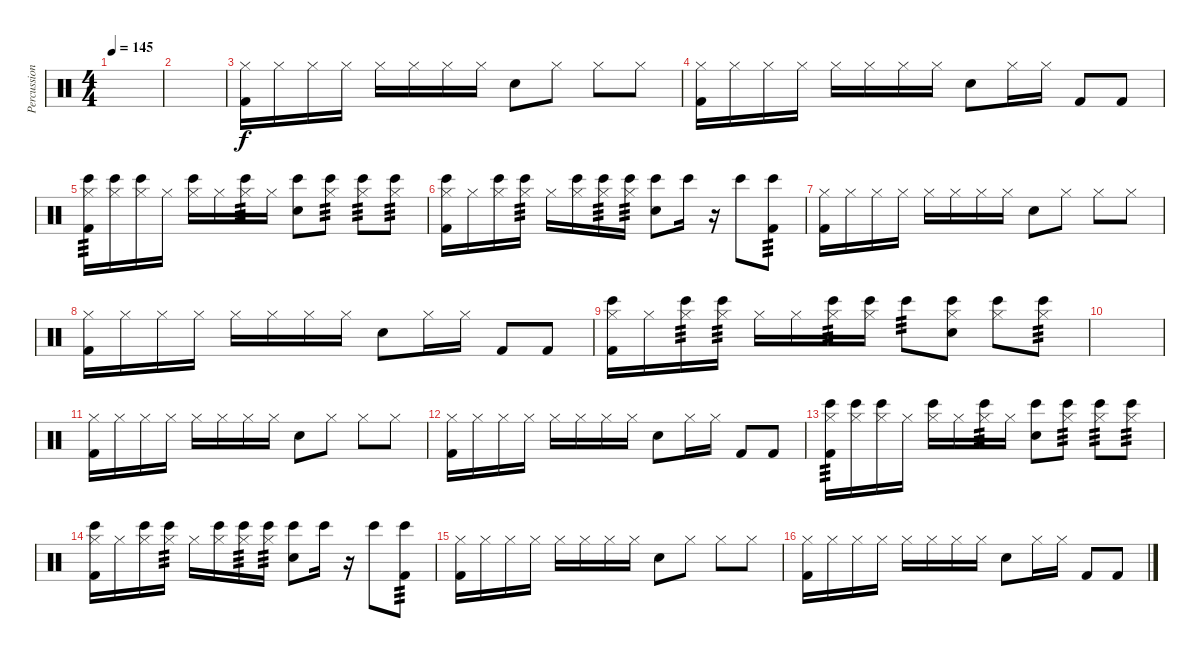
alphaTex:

\track ("Percussion" "Percussion") {instrument percussion}
\staff {score}
\articulation defaults
\ts (4 4)
\tempo 145
\clef neutral
\ks c
|
|
("Hi-Hat (closed)" "Kick (hit) 2").16 "Hi-Hat (closed)".16 "Hi-Hat (closed)".16 "Hi-Hat (closed)".16 "Hi-Hat (closed)".16 "Hi-Hat (closed)".16 "Hi-Hat (closed)".16 "Hi-Hat (closed)".16 "Hand Clap (hit)".8 "Hi-Hat (closed)".8 "Hi-Hat (closed)".8 "Hi-Hat (closed)".8 |
("Hi-Hat (closed)" "Kick (hit) 2").16 "Hi-Hat (closed)".16 "Hi-Hat (closed)".16 "Hi-Hat (closed)".16 "Hi-Hat (closed)".16 "Hi-Hat (closed)".16 "Hi-Hat (closed)".16 "Hi-Hat (closed)".16 "Hand Clap (hit)".8 "Hi-Hat (closed)".16 "Hi-Hat (closed)".16 "Kick (hit) 2".8 "Kick (hit) 2".8 |
("Hi-Hat (closed)" "Bongo High (hit)" "Kick (hit) 2").16{tp 3} ("Hi-Hat (closed)" "Bongo High (hit)").16 ("Hi-Hat (closed)" "Bongo High (hit)").16 "Hi-Hat (closed)".16 ("Hi-Hat (closed)" "Bongo High (hit)").16 "Hi-Hat (closed)".16 ("Hi-Hat (closed)" "Bongo High (hit)").16{tp 3} "Hi-Hat (closed)".16 ("Hand Clap (hit)" "Bongo High (hit)").8 ("Hi-Hat (closed)" "Bongo High (hit)").8{tp 3} ("Hi-Hat (closed)" "Bongo High (hit)").8{tp 3} ("Hi-Hat (closed)" "Bongo High (hit)").8{tp 3} |
("Hi-Hat (closed)" "Bongo High (hit)" "Kick (hit) 2").16 "Hi-Hat (closed)".16 ("Hi-Hat (closed)" "Bongo High (hit)").16 ("Hi-Hat (closed)" "Bongo High (hit)").16{tp 3} "Hi-Hat (closed)".16 ("Hi-Hat (closed)" "Bongo High (hit)").16 ("Hi-Hat (closed)" "Bongo High (hit)").16{tp 3} ("Hi-Hat (closed)" "Bongo High (hit)").16{tp 3} ("Hand Clap (hit)" "Bongo High (hit)").8 "Bongo High (hit)".16 r.16 "Bongo High (hit)".8 ("Bongo High (hit)" "Kick (hit) 2").8{tp 3} |
("Hi-Hat (closed)" "Kick (hit) 2").16 "Hi-Hat (closed)".16 "Hi-Hat (closed)".16 "Hi-Hat (closed)".16 "Hi-Hat (closed)".16 "Hi-Hat (closed)".16 "Hi-Hat (closed)".16 "Hi-Hat (closed)".16 "Hand Clap (hit)".8 "Hi-Hat (closed)".8 "Hi-Hat (closed)".8 "Hi-Hat (closed)".8 |
("Hi-Hat (closed)" "Kick (hit) 2").16 "Hi-Hat (closed)".16 "Hi-Hat (closed)".16 "Hi-Hat (closed)".16 "Hi-Hat (closed)".16 "Hi-Hat (closed)".16 "Hi-Hat (closed)".16 "Hi-Hat (closed)".16 "Hand Clap (hit)".8 "Hi-Hat (closed)".16 "Hi-Hat (closed)".16 "Kick (hit) 2".8 "Kick (hit) 2".8 |
("Hi-Hat (closed)" "Bongo High (hit)" "Kick (hit) 2").16 "Hi-Hat (closed)".16 ("Hi-Hat (closed)" "Bongo High (hit)").16{tp 3} ("Hi-Hat (closed)" "Bongo High (hit)").16{tp 3} "Hi-Hat (closed)".16 "Hi-Hat (closed)".16 ("Hi-Hat (closed)" "Bongo High (hit)").16{tp 3} ("Hi-Hat (closed)" "Bongo High (hit)").16 "Bongo High (hit)".8{tp 3} ("Hi-Hat (closed)" "Hand Clap (hit)" "Bongo High (hit)").8 ("Hi-Hat (closed)" "Bongo High (hit)").8 ("Hi-Hat (closed)" "Bongo High (hit)").8{tp 3} |
|
("Hi-Hat (closed)" "Kick (hit) 2").16 "Hi-Hat (closed)".16 "Hi-Hat (closed)".16 "Hi-Hat (closed)".16 "Hi-Hat (closed)".16 "Hi-Hat (closed)".16 "Hi-Hat (closed)".16 "Hi-Hat (closed)".16 "Hand Clap (hit)".8 "Hi-Hat (closed)".8 "Hi-Hat (closed)".8 "Hi-Hat (closed)".8 |
("Hi-Hat (closed)" "Kick (hit) 2").16 "Hi-Hat (closed)".16 "Hi-Hat (closed)".16 "Hi-Hat (closed)".16 "Hi-Hat (closed)".16 "Hi-Hat (closed)".16 "Hi-Hat (closed)".16 "Hi-Hat (closed)".16 "Hand Clap (hit)".8 "Hi-Hat (closed)".16 "Hi-Hat (closed)".16 "Kick (hit) 2".8 "Kick (hit) 2".8 |
("Hi-Hat (closed)" "Bongo High (hit)" "Kick (hit) 2").16{tp 3} ("Hi-Hat (closed)" "Bongo High (hit)").16 ("Hi-Hat (closed)" "Bongo High (hit)").16 "Hi-Hat (closed)".16 ("Hi-Hat (closed)" "Bongo High (hit)").16 "Hi-Hat (closed)".16 ("Hi-Hat (closed)" "Bongo High (hit)").16{tp 3} "Hi-Hat (closed)".16 ("Hand Clap (hit)" "Bongo High (hit)").8 ("Hi-Hat (closed)" "Bongo High (hit)").8{tp 3} ("Hi-Hat (closed)" "Bongo High (hit)").8{tp 3} ("Hi-Hat (closed)" "Bongo High (hit)").8{tp 3} |
("Hi-Hat (closed)" "Bongo High (hit)" "Kick (hit) 2").16 "Hi-Hat (closed)".16 ("Hi-Hat (closed)" "Bongo High (hit)").16 ("Hi-Hat (closed)" "Bongo High (hit)").16{tp 3} "Hi-Hat (closed)".16 ("Hi-Hat (closed)" "Bongo High (hit)").16 ("Hi-Hat (closed)" "Bongo High (hit)").16{tp 3} ("Hi-Hat (closed)" "Bongo High (hit)").16{tp 3} ("Hand Clap (hit)" "Bongo High (hit)").8 "Bongo High (hit)".16 r.16 "Bongo High (hit)".8 ("Bongo High (hit)" "Kick (hit) 2").8{tp 3} |
("Hi-Hat (closed)" "Kick (hit) 2").16 "Hi-Hat (closed)".16 "Hi-Hat (closed)".16 "Hi-Hat (closed)".16 "Hi-Hat (closed)".16 "Hi-Hat (closed)".16 "Hi-Hat (closed)".16 "Hi-Hat (closed)".16 "Hand Clap (hit)".8 "Hi-Hat (closed)".8 "Hi-Hat (closed)".8 "Hi-Hat (closed)".8 |
("Hi-Hat (closed)" "Kick (hit) 2").16 "Hi-Hat (closed)".16 "Hi-Hat (closed)".16 "Hi-Hat (closed)".16 "Hi-Hat (closed)".16 "Hi-Hat (closed)".16 "Hi-Hat (closed)".16 "Hi-Hat (closed)".16 "Hand Clap (hit)".8 "Hi-Hat (closed)".16 "Hi-Hat (closed)".16 "Kick (hit) 2".8 "Kick (hit) 2".8
